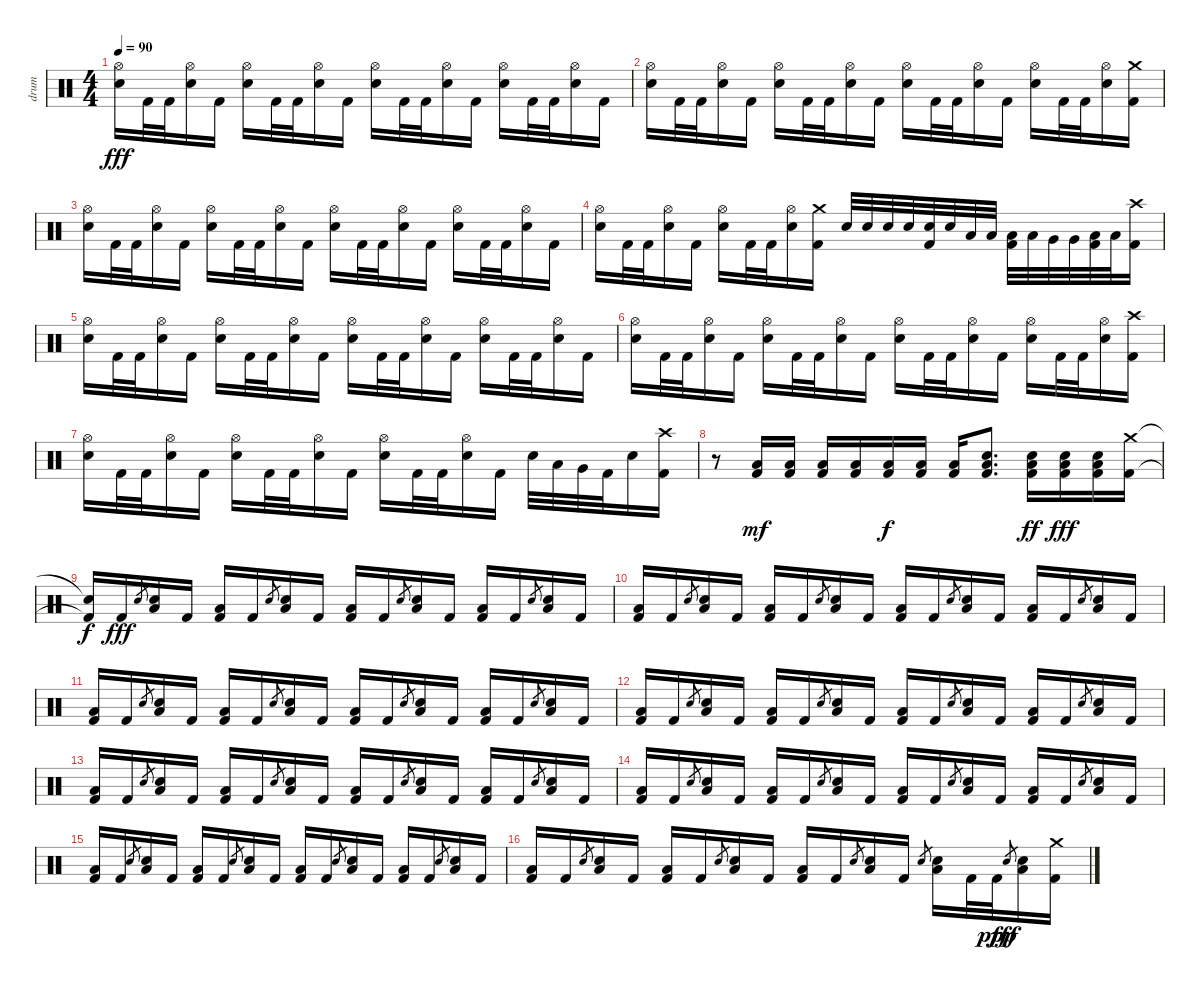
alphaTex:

\track ("drum" "drum") {instrument percussion}
\staff {score}
\articulation defaults
\ts (4 4)
\tempo 90
\clef neutral
\ks c
("Hi-Hat (open)" "Electric Snare (hit)").16{dy fff} "Kick (hit) 2".32 "Kick (hit) 2".32 ("Hi-Hat (open)" "Electric Snare (hit)").16 "Kick (hit) 2".16 ("Hi-Hat (open)" "Electric Snare (hit)").16 "Kick (hit) 2".32 "Kick (hit) 2".32 ("Hi-Hat (open)" "Electric Snare (hit)").16 "Kick (hit) 2".16 ("Hi-Hat (open)" "Electric Snare (hit)").16 "Kick (hit) 2".32 "Kick (hit) 2".32 ("Hi-Hat (open)" "Electric Snare (hit)").16 "Kick (hit) 2".16 ("Hi-Hat (open)" "Electric Snare (hit)").16 "Kick (hit) 2".32 "Kick (hit) 2".32 ("Hi-Hat (open)" "Electric Snare (hit)").16 "Kick (hit) 2".16 |
("Hi-Hat (open)" "Electric Snare (hit)").16 "Kick (hit) 2".32 "Kick (hit) 2".32 ("Hi-Hat (open)" "Electric Snare (hit)").16 "Kick (hit) 2".16 ("Hi-Hat (open)" "Electric Snare (hit)").16 "Kick (hit) 2".32 "Kick (hit) 2".32 ("Hi-Hat (open)" "Electric Snare (hit)").16 "Kick (hit) 2".16 ("Hi-Hat (open)" "Electric Snare (hit)").16 "Kick (hit) 2".32 "Kick (hit) 2".32 ("Hi-Hat (open)" "Electric Snare (hit)").16 "Kick (hit) 2".16 ("Hi-Hat (open)" "Electric Snare (hit)").16 "Kick (hit) 2".32 "Kick (hit) 2".32 ("Hi-Hat (open)" "Electric Snare (hit)").16 ("Crash medium (hit)" "Kick (hit) 2").16 |
("Hi-Hat (open)" "Electric Snare (hit)").16 "Kick (hit) 2".32 "Kick (hit) 2".32 ("Hi-Hat (open)" "Electric Snare (hit)").16 "Kick (hit) 2".16 ("Hi-Hat (open)" "Electric Snare (hit)").16 "Kick (hit) 2".32 "Kick (hit) 2".32 ("Hi-Hat (open)" "Electric Snare (hit)").16 "Kick (hit) 2".16 ("Hi-Hat (open)" "Electric Snare (hit)").16 "Kick (hit) 2".32 "Kick (hit) 2".32 ("Hi-Hat (open)" "Electric Snare (hit)").16 "Kick (hit) 2".16 ("Hi-Hat (open)" "Electric Snare (hit)").16 "Kick (hit) 2".32 "Kick (hit) 2".32 ("Hi-Hat (open)" "Electric Snare (hit)").16 "Kick (hit) 2".16 |
("Hi-Hat (open)" "Electric Snare (hit)").16 "Kick (hit) 2".32 "Kick (hit) 2".32 ("Hi-Hat (open)" "Electric Snare (hit)").16 "Kick (hit) 2".16 ("Hi-Hat (open)" "Electric Snare (hit)").16 "Kick (hit) 2".32 "Kick (hit) 2".32 ("Hi-Hat (open)" "Electric Snare (hit)").16 ("Crash medium (hit)" "Kick (hit) 2").16 "Electric Snare (hit)".32 "Electric Snare (hit)".32 "Electric Snare (hit)".32 "Electric Snare (hit)".32 ("Electric Snare (hit)" "Kick (hit) 2").32 "Electric Snare (hit)".32 "Low Tom (hit)".32 "Low Tom (hit)".32 ("Low Tom (hit)" "Kick (hit) 2").32 "Low Tom (hit)".32 "Very Low Tom (hit)".32 "Very Low Tom (hit)".32 ("Low Floor Tom (hit)" "Kick (hit) 2").32 "Low Floor Tom (hit)".32 ("Crash high (hit)" "Kick (hit) 2").16 |
("Hi-Hat (open)" "Electric Snare (hit)").16 "Kick (hit) 2".32 "Kick (hit) 2".32 ("Hi-Hat (open)" "Electric Snare (hit)").16 "Kick (hit) 2".16 ("Hi-Hat (open)" "Electric Snare (hit)").16 "Kick (hit) 2".32 "Kick (hit) 2".32 ("Hi-Hat (open)" "Electric Snare (hit)").16 "Kick (hit) 2".16 ("Hi-Hat (open)" "Electric Snare (hit)").16 "Kick (hit) 2".32 "Kick (hit) 2".32 ("Hi-Hat (open)" "Electric Snare (hit)").16 "Kick (hit) 2".16 ("Hi-Hat (open)" "Electric Snare (hit)").16 "Kick (hit) 2".32 "Kick (hit) 2".32 ("Hi-Hat (open)" "Electric Snare (hit)").16 "Kick (hit) 2".16 |
("Hi-Hat (open)" "Electric Snare (hit)").16 "Kick (hit) 2".32 "Kick (hit) 2".32 ("Hi-Hat (open)" "Electric Snare (hit)").16 "Kick (hit) 2".16 ("Hi-Hat (open)" "Electric Snare (hit)").16 "Kick (hit) 2".32 "Kick (hit) 2".32 ("Hi-Hat (open)" "Electric Snare (hit)").16 "Kick (hit) 2".16 ("Hi-Hat (open)" "Electric Snare (hit)").16 "Kick (hit) 2".32 "Kick (hit) 2".32 ("Hi-Hat (open)" "Electric Snare (hit)").16 "Kick (hit) 2".16 ("Hi-Hat (open)" "Electric Snare (hit)").16 "Kick (hit) 2".32 "Kick (hit) 2".32 ("Hi-Hat (open)" "Electric Snare (hit)").16 ("Crash high (hit)" "Kick (hit) 2").16 |
("Hi-Hat (open)" "Electric Snare (hit)").16 "Kick (hit) 2".32 "Kick (hit) 2".32 ("Hi-Hat (open)" "Electric Snare (hit)").16 "Kick (hit) 2".16 ("Hi-Hat (open)" "Electric Snare (hit)").16 "Kick (hit) 2".32 "Kick (hit) 2".32 ("Hi-Hat (open)" "Electric Snare (hit)").16 "Kick (hit) 2".16 ("Hi-Hat (open)" "Electric Snare (hit)").16 "Kick (hit) 2".32 "Kick (hit) 2".32 ("Hi-Hat (open)" "Electric Snare (hit)").16 "Kick (hit) 2".16 "Electric Snare (hit)".32 "Low Tom (hit)".32 "Very Low Tom (hit)".32 "Kick (hit) 2".32 "Electric Snare (hit)".16 ("Crash high (hit)" "Kick (hit) 2").16 |
r.8 ("Low Floor Tom (hit)" "Kick (hit) 2").16{dy mf} ("Low Floor Tom (hit)" "Kick (hit) 2").16 ("Low Floor Tom (hit)" "Kick (hit) 2").16 ("Low Floor Tom (hit)" "Kick (hit) 2").16 ("Low Floor Tom (hit)" "Kick (hit) 2").16{dy f} ("Low Floor Tom (hit)" "Kick (hit) 2").16 ("Low Floor Tom (hit)" "Kick (hit) 2").16 ("Electric Snare (hit)" "Low Floor Tom (hit)" "Kick (hit) 2").8{d} ("Electric Snare (hit)" "Low Floor Tom (hit)" "Kick (hit) 2").16{dy ff} ("Electric Snare (hit)" "Low Floor Tom (hit)" "Kick (hit) 2").16{dy fff} ("Electric Snare (hit)" "Low Floor Tom (hit)" "Kick (hit) 2").16 ("Crash medium (hit)" "Kick (hit) 2").16 |
("Snare (hit)"{t} "Kick (hit) 2"{t}).16{dy f} "Kick (hit) 2".16{dy fff} "Electric Snare (hit)".8{gr} ("Electric Snare (hit)" "Low Floor Tom (hit)").16 "Kick (hit) 2".16 ("Low Floor Tom (hit)" "Kick (hit) 2").16 "Kick (hit) 2".16 "Electric Snare (hit)".8{gr} ("Electric Snare (hit)" "Low Floor Tom (hit)").16 "Kick (hit) 2".16 ("Low Floor Tom (hit)" "Kick (hit) 2").16 "Kick (hit) 2".16 "Electric Snare (hit)".8{gr} ("Electric Snare (hit)" "Low Floor Tom (hit)").16 "Kick (hit) 2".16 ("Low Floor Tom (hit)" "Kick (hit) 2").16 "Kick (hit) 2".16 "Electric Snare (hit)".8{gr} ("Electric Snare (hit)" "Low Floor Tom (hit)").16 "Kick (hit) 2".16 |
("Low Floor Tom (hit)" "Kick (hit) 2").16 "Kick (hit) 2".16 "Electric Snare (hit)".8{gr} ("Electric Snare (hit)" "Low Floor Tom (hit)").16 "Kick (hit) 2".16 ("Low Floor Tom (hit)" "Kick (hit) 2").16 "Kick (hit) 2".16 "Electric Snare (hit)".8{gr} ("Electric Snare (hit)" "Low Floor Tom (hit)").16 "Kick (hit) 2".16 ("Low Floor Tom (hit)" "Kick (hit) 2").16 "Kick (hit) 2".16 "Electric Snare (hit)".8{gr} ("Electric Snare (hit)" "Low Floor Tom (hit)").16 "Kick (hit) 2".16 ("Low Floor Tom (hit)" "Kick (hit) 2").16 "Kick (hit) 2".16 "Electric Snare (hit)".8{gr} ("Electric Snare (hit)" "Low Floor Tom (hit)").16 "Kick (hit) 2".16 |
("Low Floor Tom (hit)" "Kick (hit) 2").16 "Kick (hit) 2".16 "Electric Snare (hit)".8{gr} ("Electric Snare (hit)" "Low Floor Tom (hit)").16 "Kick (hit) 2".16 ("Low Floor Tom (hit)" "Kick (hit) 2").16 "Kick (hit) 2".16 "Electric Snare (hit)".8{gr} ("Electric Snare (hit)" "Low Floor Tom (hit)").16 "Kick (hit) 2".16 ("Low Floor Tom (hit)" "Kick (hit) 2").16 "Kick (hit) 2".16 "Electric Snare (hit)".8{gr} ("Electric Snare (hit)" "Low Floor Tom (hit)").16 "Kick (hit) 2".16 ("Low Floor Tom (hit)" "Kick (hit) 2").16 "Kick (hit) 2".16 "Electric Snare (hit)".8{gr} ("Electric Snare (hit)" "Low Floor Tom (hit)").16 "Kick (hit) 2".16 |
("Low Floor Tom (hit)" "Kick (hit) 2").16 "Kick (hit) 2".16 "Electric Snare (hit)".8{gr} ("Electric Snare (hit)" "Low Floor Tom (hit)").16 "Kick (hit) 2".16 ("Low Floor Tom (hit)" "Kick (hit) 2").16 "Kick (hit) 2".16 "Electric Snare (hit)".8{gr} ("Electric Snare (hit)" "Low Floor Tom (hit)").16 "Kick (hit) 2".16 ("Low Floor Tom (hit)" "Kick (hit) 2").16 "Kick (hit) 2".16 "Electric Snare (hit)".8{gr} ("Electric Snare (hit)" "Low Floor Tom (hit)").16 "Kick (hit) 2".16 ("Low Floor Tom (hit)" "Kick (hit) 2").16 "Kick (hit) 2".16 "Electric Snare (hit)".8{gr} ("Electric Snare (hit)" "Low Floor Tom (hit)").16 "Kick (hit) 2".16 |
("Low Floor Tom (hit)" "Kick (hit) 2").16 "Kick (hit) 2".16 "Electric Snare (hit)".8{gr} ("Electric Snare (hit)" "Low Floor Tom (hit)").16 "Kick (hit) 2".16 ("Low Floor Tom (hit)" "Kick (hit) 2").16 "Kick (hit) 2".16 "Electric Snare (hit)".8{gr} ("Electric Snare (hit)" "Low Floor Tom (hit)").16 "Kick (hit) 2".16 ("Low Floor Tom (hit)" "Kick (hit) 2").16 "Kick (hit) 2".16 "Electric Snare (hit)".8{gr} ("Electric Snare (hit)" "Low Floor Tom (hit)").16 "Kick (hit) 2".16 ("Low Floor Tom (hit)" "Kick (hit) 2").16 "Kick (hit) 2".16 "Electric Snare (hit)".8{gr} ("Electric Snare (hit)" "Low Floor Tom (hit)").16 "Kick (hit) 2".16 |
("Low Floor Tom (hit)" "Kick (hit) 2").16 "Kick (hit) 2".16 "Electric Snare (hit)".8{gr} ("Electric Snare (hit)" "Low Floor Tom (hit)").16 "Kick (hit) 2".16 ("Low Floor Tom (hit)" "Kick (hit) 2").16 "Kick (hit) 2".16 "Electric Snare (hit)".8{gr} ("Electric Snare (hit)" "Low Floor Tom (hit)").16 "Kick (hit) 2".16 ("Low Floor Tom (hit)" "Kick (hit) 2").16 "Kick (hit) 2".16 "Electric Snare (hit)".8{gr} ("Electric Snare (hit)" "Low Floor Tom (hit)").16 "Kick (hit) 2".16 ("Low Floor Tom (hit)" "Kick (hit) 2").16 "Kick (hit) 2".16 "Electric Snare (hit)".8{gr} ("Electric Snare (hit)" "Low Floor Tom (hit)").16 "Kick (hit) 2".16 |
("Low Floor Tom (hit)" "Kick (hit) 2").16 "Kick (hit) 2".16 "Electric Snare (hit)".8{gr} ("Electric Snare (hit)" "Low Floor Tom (hit)").16 "Kick (hit) 2".16 ("Low Floor Tom (hit)" "Kick (hit) 2").16 "Kick (hit) 2".16 "Electric Snare (hit)".8{gr} ("Electric Snare (hit)" "Low Floor Tom (hit)").16 "Kick (hit) 2".16 ("Low Floor Tom (hit)" "Kick (hit) 2").16 "Kick (hit) 2".16 "Electric Snare (hit)".8{gr} ("Electric Snare (hit)" "Low Floor Tom (hit)").16 "Kick (hit) 2".16 ("Low Floor Tom (hit)" "Kick (hit) 2").16 "Kick (hit) 2".16 "Electric Snare (hit)".8{gr} ("Electric Snare (hit)" "Low Floor Tom (hit)").16 "Kick (hit) 2".16 |
("Low Floor Tom (hit)" "Kick (hit) 2").16 "Kick (hit) 2".16 "Electric Snare (hit)".8{gr} ("Electric Snare (hit)" "Low Floor Tom (hit)").16 "Kick (hit) 2".16 ("Low Floor Tom (hit)" "Kick (hit) 2").16 "Kick (hit) 2".16 "Electric Snare (hit)".8{gr} ("Electric Snare (hit)" "Low Floor Tom (hit)").16 "Kick (hit) 2".16 ("Low Floor Tom (hit)" "Kick (hit) 2").16 "Kick (hit) 2".16 "Electric Snare (hit)".8{gr} ("Electric Snare (hit)" "Low Floor Tom (hit)").16 "Kick (hit) 2".16 "Electric Snare (hit)".8{gr} ("Electric Snare (hit)" "Low Floor Tom (hit)").16 "Kick (hit) 2".32 "Kick (hit) 2".32{dy ppp} "Electric Snare (hit)".8{gr dy fff} ("Electric Snare (hit)" "Low Floor Tom (hit)").16 ("Crash medium (hit)" "Kick (hit) 2").16
